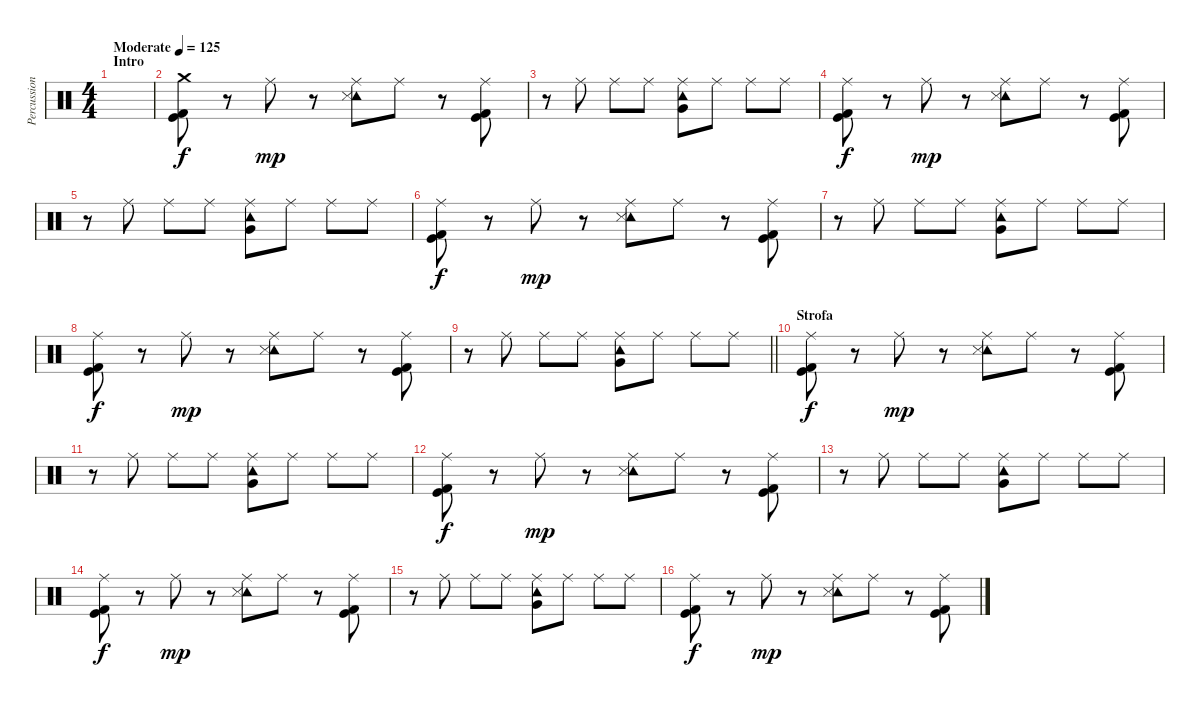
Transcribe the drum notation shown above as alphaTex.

\track ("Percussioni" "Percussion") {instrument percussion}
\staff {score}
\articulation defaults
\ts (4 4)
\section ("" "Intro")
\tempo (125 "Moderate")
\clef neutral
\ks c
|
("Crash medium (hit)" "Kick (hit)" "Kick (hit) 2").8 r.8 "Ride (middle)".8{dy mp} r.8 ("Ride (middle)" "Tambourine (hit)" "Snare (side stick) 3").8 "Ride (middle)".8 r.8 ("Ride (middle)" "Kick (hit)" "Kick (hit) 2").8 |
r.8 "Ride (middle)".8 "Ride (middle)".8 "Ride (middle)".8 ("Ride (middle)" "Tambourine (hit)" "Very Low Tom (hit)").8 "Ride (middle)".8 "Ride (middle)".8 "Ride (middle)".8 |
("Ride (middle)" "Kick (hit)" "Kick (hit) 2").8{dy f} r.8 "Ride (middle)".8{dy mp} r.8 ("Ride (middle)" "Tambourine (hit)" "Snare (side stick) 3").8 "Ride (middle)".8 r.8 ("Ride (middle)" "Kick (hit)" "Kick (hit) 2").8 |
r.8 "Ride (middle)".8 "Ride (middle)".8 "Ride (middle)".8 ("Ride (middle)" "Tambourine (hit)" "Very Low Tom (hit)").8 "Ride (middle)".8 "Ride (middle)".8 "Ride (middle)".8 |
("Ride (middle)" "Kick (hit)" "Kick (hit) 2").8{dy f} r.8 "Ride (middle)".8{dy mp} r.8 ("Ride (middle)" "Tambourine (hit)" "Snare (side stick) 3").8 "Ride (middle)".8 r.8 ("Ride (middle)" "Kick (hit)" "Kick (hit) 2").8 |
r.8 "Ride (middle)".8 "Ride (middle)".8 "Ride (middle)".8 ("Ride (middle)" "Tambourine (hit)" "Very Low Tom (hit)").8 "Ride (middle)".8 "Ride (middle)".8 "Ride (middle)".8 |
("Ride (middle)" "Kick (hit)" "Kick (hit) 2").8{dy f} r.8 "Ride (middle)".8{dy mp} r.8 ("Ride (middle)" "Tambourine (hit)" "Snare (side stick) 3").8 "Ride (middle)".8 r.8 ("Ride (middle)" "Kick (hit)" "Kick (hit) 2").8 |
\barLineRight lightlight
r.8 "Ride (middle)".8 "Ride (middle)".8 "Ride (middle)".8 ("Ride (middle)" "Tambourine (hit)" "Very Low Tom (hit)").8 "Ride (middle)".8 "Ride (middle)".8 "Ride (middle)".8 |
\section ("" "Strofa")
("Ride (middle)" "Kick (hit)" "Kick (hit) 2").8{dy f} r.8 "Ride (middle)".8{dy mp} r.8 ("Ride (middle)" "Tambourine (hit)" "Snare (side stick) 3").8 "Ride (middle)".8 r.8 ("Ride (middle)" "Kick (hit)" "Kick (hit) 2").8 |
r.8 "Ride (middle)".8 "Ride (middle)".8 "Ride (middle)".8 ("Ride (middle)" "Tambourine (hit)" "Very Low Tom (hit)").8 "Ride (middle)".8 "Ride (middle)".8 "Ride (middle)".8 |
("Ride (middle)" "Kick (hit)" "Kick (hit) 2").8{dy f} r.8 "Ride (middle)".8{dy mp} r.8 ("Ride (middle)" "Tambourine (hit)" "Snare (side stick) 3").8 "Ride (middle)".8 r.8 ("Ride (middle)" "Kick (hit)" "Kick (hit) 2").8 |
r.8 "Ride (middle)".8 "Ride (middle)".8 "Ride (middle)".8 ("Ride (middle)" "Tambourine (hit)" "Very Low Tom (hit)").8 "Ride (middle)".8 "Ride (middle)".8 "Ride (middle)".8 |
("Ride (middle)" "Kick (hit)" "Kick (hit) 2").8{dy f} r.8 "Ride (middle)".8{dy mp} r.8 ("Ride (middle)" "Tambourine (hit)" "Snare (side stick) 3").8 "Ride (middle)".8 r.8 ("Ride (middle)" "Kick (hit)" "Kick (hit) 2").8 |
r.8 "Ride (middle)".8 "Ride (middle)".8 "Ride (middle)".8 ("Ride (middle)" "Tambourine (hit)" "Very Low Tom (hit)").8 "Ride (middle)".8 "Ride (middle)".8 "Ride (middle)".8 |
("Ride (middle)" "Kick (hit)" "Kick (hit) 2").8{dy f} r.8 "Ride (middle)".8{dy mp} r.8 ("Ride (middle)" "Tambourine (hit)" "Snare (side stick) 3").8 "Ride (middle)".8 r.8 ("Ride (middle)" "Kick (hit)" "Kick (hit) 2").8
